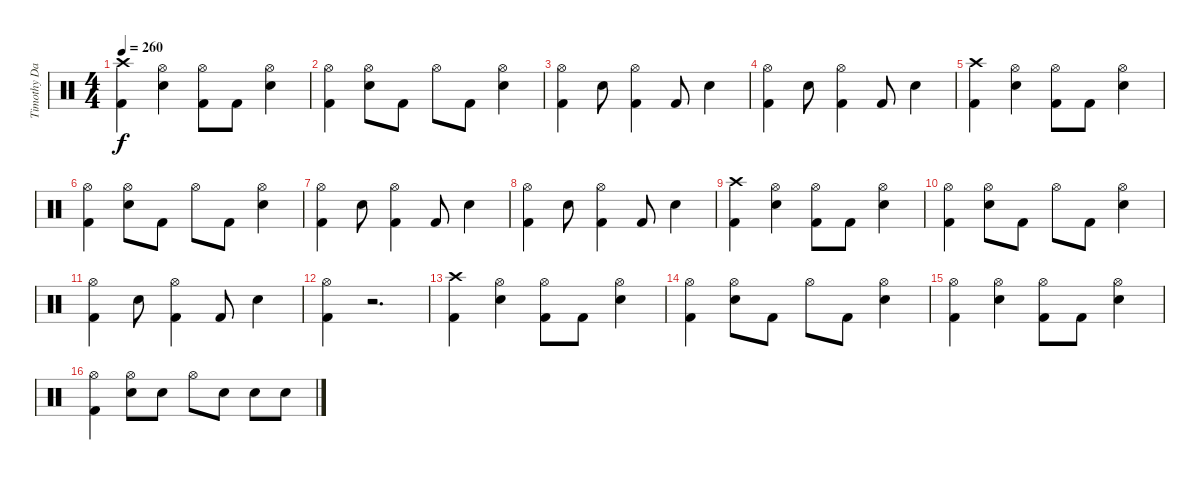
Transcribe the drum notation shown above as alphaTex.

\track ("Timothy David Bollinger" "Timothy Da") {instrument percussion}
\staff {score}
\articulation defaults
\ts (4 4)
\tempo 260
\clef neutral
\ks c
("Crash high (hit)" "Kick (hit) 2").4{dy f} ("Hi-Hat (open)" "Electric Snare (hit)").4 ("Hi-Hat (open)" "Kick (hit) 2").8 "Kick (hit) 2".8 ("Hi-Hat (open)" "Electric Snare (hit)").4 |
("Hi-Hat (open)" "Kick (hit) 2").4 ("Hi-Hat (open)" "Electric Snare (hit)").8 "Kick (hit) 2".8 "Hi-Hat (open)".8 "Kick (hit) 2".8 ("Hi-Hat (open)" "Electric Snare (hit)").4 |
("Hi-Hat (open)" "Kick (hit) 2").4 "Electric Snare (hit)".8 ("Hi-Hat (open)" "Kick (hit) 2").4 "Kick (hit) 2".8 "Electric Snare (hit)".4 |
("Hi-Hat (open)" "Kick (hit) 2").4 "Electric Snare (hit)".8 ("Hi-Hat (open)" "Kick (hit) 2").4 "Kick (hit) 2".8 "Electric Snare (hit)".4 |
("Crash high (hit)" "Kick (hit) 2").4 ("Hi-Hat (open)" "Electric Snare (hit)").4 ("Hi-Hat (open)" "Kick (hit) 2").8 "Kick (hit) 2".8 ("Hi-Hat (open)" "Electric Snare (hit)").4 |
("Hi-Hat (open)" "Kick (hit) 2").4 ("Hi-Hat (open)" "Electric Snare (hit)").8 "Kick (hit) 2".8 "Hi-Hat (open)".8 "Kick (hit) 2".8 ("Hi-Hat (open)" "Electric Snare (hit)").4 |
("Hi-Hat (open)" "Kick (hit) 2").4 "Electric Snare (hit)".8 ("Hi-Hat (open)" "Kick (hit) 2").4 "Kick (hit) 2".8 "Electric Snare (hit)".4 |
("Hi-Hat (open)" "Kick (hit) 2").4 "Electric Snare (hit)".8 ("Hi-Hat (open)" "Kick (hit) 2").4 "Kick (hit) 2".8 "Electric Snare (hit)".4 |
("Crash high (hit)" "Kick (hit) 2").4 ("Hi-Hat (open)" "Electric Snare (hit)").4 ("Hi-Hat (open)" "Kick (hit) 2").8 "Kick (hit) 2".8 ("Hi-Hat (open)" "Electric Snare (hit)").4 |
("Hi-Hat (open)" "Kick (hit) 2").4 ("Hi-Hat (open)" "Electric Snare (hit)").8 "Kick (hit) 2".8 "Hi-Hat (open)".8 "Kick (hit) 2".8 ("Hi-Hat (open)" "Electric Snare (hit)").4 |
("Hi-Hat (open)" "Kick (hit) 2").4 "Electric Snare (hit)".8 ("Hi-Hat (open)" "Kick (hit) 2").4 "Kick (hit) 2".8 "Electric Snare (hit)".4 |
("Hi-Hat (open)" "Kick (hit) 2").4 r.2{d} |
("Crash high (hit)" "Kick (hit) 2").4 ("Hi-Hat (open)" "Electric Snare (hit)").4 ("Hi-Hat (open)" "Kick (hit) 2").8 "Kick (hit) 2".8 ("Hi-Hat (open)" "Electric Snare (hit)").4 |
("Hi-Hat (open)" "Kick (hit) 2").4 ("Hi-Hat (open)" "Electric Snare (hit)").8 "Kick (hit) 2".8 "Hi-Hat (open)".8 "Kick (hit) 2".8 ("Hi-Hat (open)" "Electric Snare (hit)").4 |
("Hi-Hat (open)" "Kick (hit) 2").4 ("Hi-Hat (open)" "Electric Snare (hit)").4 ("Hi-Hat (open)" "Kick (hit) 2").8 "Kick (hit) 2".8 ("Hi-Hat (open)" "Electric Snare (hit)").4 |
("Hi-Hat (open)" "Kick (hit) 2").4 ("Hi-Hat (open)" "Electric Snare (hit)").8 "Electric Snare (hit)".8 "Hi-Hat (open)".8 "Electric Snare (hit)".8 "Electric Snare (hit)".8 "Electric Snare (hit)".8
